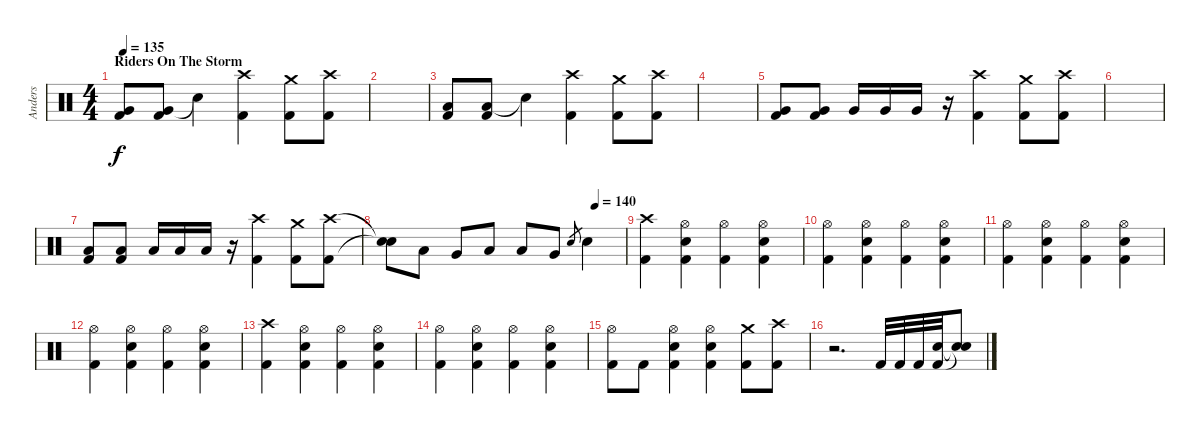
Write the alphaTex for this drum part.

\track ("Anders" "Anders") {instrument percussion}
\staff {score}
\articulation defaults
\ts (4 4)
\section ("" "Riders On The Storm")
\tempo 135
\clef neutral
\ks c
("Very Low Tom (hit)" "Kick (hit) 2").8{dy f} ("Very Low Tom (hit)" "Kick (hit) 2").8 "Snare (hit)"{t}.4 ("Crash high (hit)" "Kick (hit) 2").4 ("Crash medium (hit)" "Kick (hit) 2").8 ("Crash high (hit)" "Kick (hit) 2").8 |
|
("Low Tom (hit)" "Kick (hit) 2").8 ("Low Tom (hit)" "Kick (hit) 2").8 "Snare (hit)"{t}.4 ("Crash high (hit)" "Kick (hit) 2").4 ("Crash medium (hit)" "Kick (hit) 2").8 ("Crash high (hit)" "Kick (hit) 2").8 |
|
("Very Low Tom (hit)" "Kick (hit) 2").8 ("Very Low Tom (hit)" "Kick (hit) 2").8 "Very Low Tom (hit)".16 "Very Low Tom (hit)".16 "Very Low Tom (hit)".16 r.16 ("Crash high (hit)" "Kick (hit) 2").4 ("Crash medium (hit)" "Kick (hit) 2").8 ("Crash high (hit)" "Kick (hit) 2").8 |
|
("Low Tom (hit)" "Kick (hit) 2").8 ("Low Tom (hit)" "Kick (hit) 2").8 "Low Tom (hit)".16 "Low Tom (hit)".16 "Low Tom (hit)".16 r.16 ("Crash high (hit)" "Kick (hit) 2").4 ("Crash medium (hit)" "Kick (hit) 2").8 ("Crash high (hit)" "Kick (hit) 2").8 |
\tempo (140 0.875)
("Snare (hit)"{t} "Snare (hit)"{t}).8 "Low Tom (hit)".8 "Very Low Tom (hit)".8 "Low Floor Tom (hit)".8 "Low Tom (hit)".8 "Very Low Tom (hit)".8 "Electric Snare (hit)".8{gr} "Electric Snare (hit)".4 |
("Crash high (hit)" "Kick (hit) 2").4 ("Hi-Hat (open)" "Electric Snare (hit)" "Kick (hit) 2").4 ("Hi-Hat (open)" "Kick (hit) 2").4 ("Hi-Hat (open)" "Electric Snare (hit)" "Kick (hit) 2").4 |
("Hi-Hat (open)" "Kick (hit) 2").4 ("Hi-Hat (open)" "Electric Snare (hit)" "Kick (hit) 2").4 ("Hi-Hat (open)" "Kick (hit) 2").4 ("Hi-Hat (open)" "Electric Snare (hit)" "Kick (hit) 2").4 |
("Hi-Hat (open)" "Kick (hit) 2").4 ("Hi-Hat (open)" "Electric Snare (hit)" "Kick (hit) 2").4 ("Hi-Hat (open)" "Kick (hit) 2").4 ("Hi-Hat (open)" "Electric Snare (hit)" "Kick (hit) 2").4 |
("Hi-Hat (open)" "Kick (hit) 2").4 ("Hi-Hat (open)" "Electric Snare (hit)" "Kick (hit) 2").4 ("Hi-Hat (open)" "Kick (hit) 2").4 ("Hi-Hat (open)" "Electric Snare (hit)" "Kick (hit) 2").4 |
("Crash high (hit)" "Kick (hit) 2").4 ("Hi-Hat (open)" "Electric Snare (hit)" "Kick (hit) 2").4 ("Hi-Hat (open)" "Kick (hit) 2").4 ("Hi-Hat (open)" "Electric Snare (hit)" "Kick (hit) 2").4 |
("Hi-Hat (open)" "Kick (hit) 2").4 ("Hi-Hat (open)" "Electric Snare (hit)" "Kick (hit) 2").4 ("Hi-Hat (open)" "Kick (hit) 2").4 ("Hi-Hat (open)" "Electric Snare (hit)" "Kick (hit) 2").4 |
("Hi-Hat (open)" "Kick (hit) 2").8 "Kick (hit) 2".8 ("Hi-Hat (open)" "Electric Snare (hit)" "Kick (hit) 2").4 ("Hi-Hat (open)" "Electric Snare (hit)" "Kick (hit) 2").4 ("Crash medium (hit)" "Kick (hit) 2").8 ("Crash high (hit)" "Kick (hit) 2").8 |
r.2{d} "Kick (hit) 2".32 "Kick (hit) 2".32 "Kick (hit) 2".32 ("Electric Snare (hit)" "Kick (hit) 2").32 ("Snare (hit)"{t} "Snare (hit)"{t}).8
